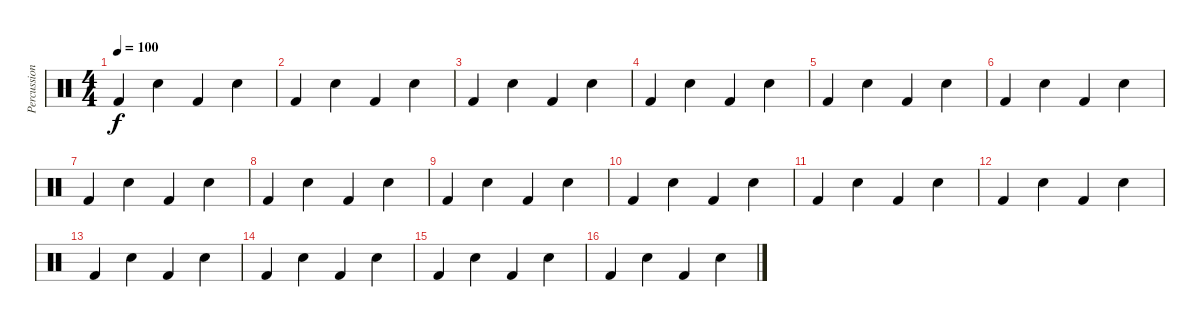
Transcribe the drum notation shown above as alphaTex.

\track ("Percussions" "Percussion") {instrument percussion}
\staff {score}
\articulation defaults
\ts (4 4)
\tempo 100
\clef neutral
\ks c "Kick (hit) 2".4{dy f} "Snare (hit) 2".4 "Kick (hit) 2".4 "Snare (hit) 2".4
|
"Kick (hit) 2".4 "Snare (hit) 2".4 "Kick (hit) 2".4 "Snare (hit) 2".4 |
"Kick (hit) 2".4 "Snare (hit) 2".4 "Kick (hit) 2".4 "Snare (hit) 2".4 |
"Kick (hit) 2".4 "Snare (hit) 2".4 "Kick (hit) 2".4 "Snare (hit) 2".4 |
"Kick (hit) 2".4 "Snare (hit) 2".4 "Kick (hit) 2".4 "Snare (hit) 2".4 |
"Kick (hit) 2".4 "Snare (hit) 2".4 "Kick (hit) 2".4 "Snare (hit) 2".4 |
"Kick (hit) 2".4 "Snare (hit) 2".4 "Kick (hit) 2".4 "Snare (hit) 2".4 |
"Kick (hit) 2".4 "Snare (hit) 2".4 "Kick (hit) 2".4 "Snare (hit) 2".4 |
"Kick (hit) 2".4 "Snare (hit) 2".4 "Kick (hit) 2".4 "Snare (hit) 2".4 |
"Kick (hit) 2".4 "Snare (hit) 2".4 "Kick (hit) 2".4 "Snare (hit) 2".4 |
"Kick (hit) 2".4 "Snare (hit) 2".4 "Kick (hit) 2".4 "Snare (hit) 2".4 |
"Kick (hit) 2".4 "Snare (hit) 2".4 "Kick (hit) 2".4 "Snare (hit) 2".4 |
"Kick (hit) 2".4 "Snare (hit) 2".4 "Kick (hit) 2".4 "Snare (hit) 2".4 |
"Kick (hit) 2".4 "Snare (hit) 2".4 "Kick (hit) 2".4 "Snare (hit) 2".4 |
"Kick (hit) 2".4 "Snare (hit) 2".4 "Kick (hit) 2".4 "Snare (hit) 2".4 |
"Kick (hit) 2".4 "Snare (hit) 2".4 "Kick (hit) 2".4 "Snare (hit) 2".4
